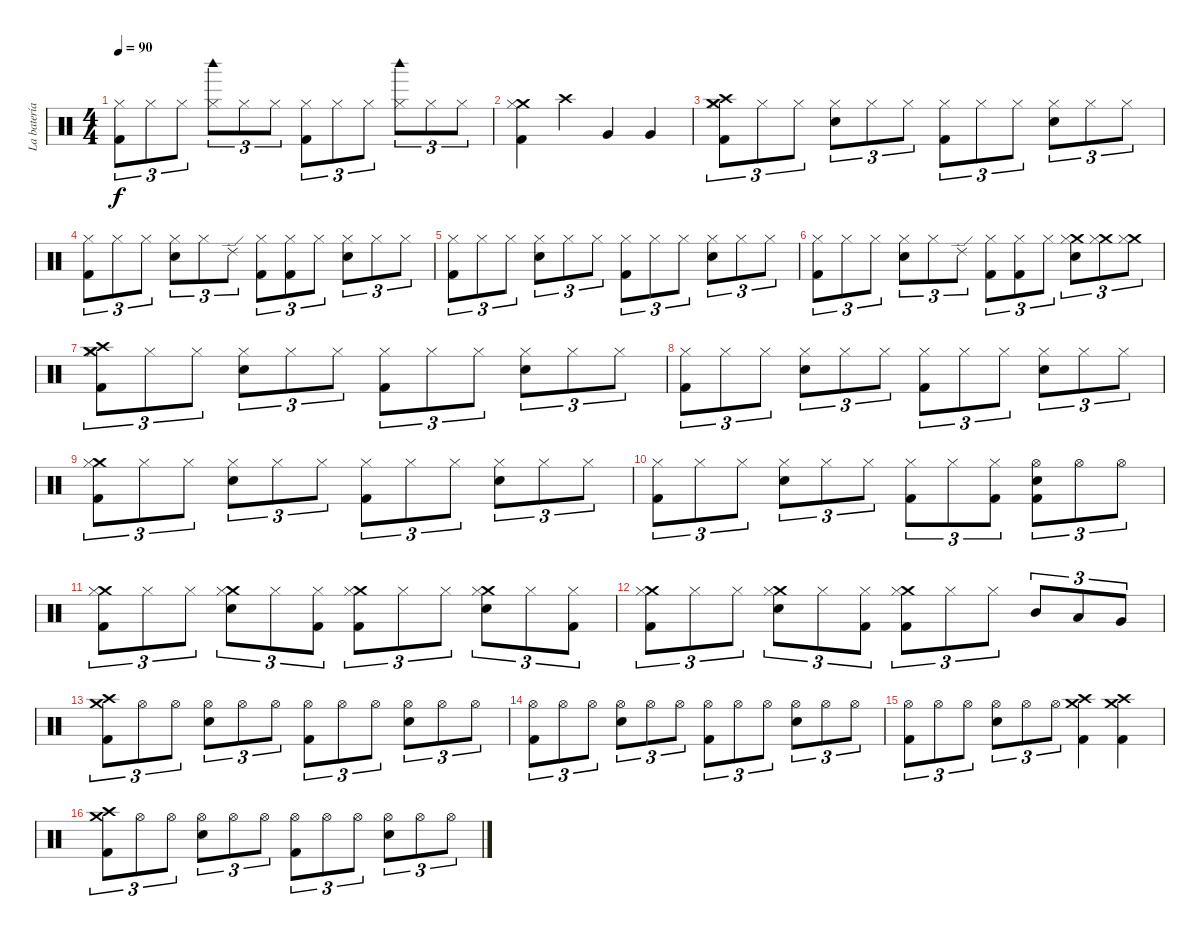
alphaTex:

\track ("La batería (con dos huevos xD)" "La batería") {instrument percussion}
\staff {score}
\articulation defaults
\ts (4 4)
\tempo 90
\clef neutral
\ks c
("Hi-Hat (closed)" "Kick (hit) 2").8{tu (3 2) dy f} "Hi-Hat (closed)".8{tu (3 2)} "Hi-Hat (closed)".8{tu (3 2)} ("Hi-Hat (closed)" "Woodblock high (hit)").8{tu (3 2)} "Hi-Hat (closed)".8{tu (3 2)} "Hi-Hat (closed)".8{tu (3 2)} ("Hi-Hat (closed)" "Kick (hit) 2").8{tu (3 2)} "Hi-Hat (closed)".8{tu (3 2)} "Hi-Hat (closed)".8{tu (3 2)} ("Hi-Hat (closed)" "Woodblock high (hit)").8{tu (3 2)} "Hi-Hat (closed)".8{tu (3 2)} "Hi-Hat (closed)".8{tu (3 2)} |
("Crash medium (hit)" "Hi-Hat (closed)" "Kick (hit) 2").4 "Crash high (hit)".4 "Very Low Tom (hit)".4 "Very Low Tom (hit)".4 |
("Crash high (hit)" "Hi-Hat (closed)" "Crash medium (hit)" "Kick (hit) 2").8{tu (3 2)} "Hi-Hat (closed)".8{tu (3 2)} "Hi-Hat (closed)".8{tu (3 2)} ("Hi-Hat (closed)" "Electric Snare (hit)").8{tu (3 2)} "Hi-Hat (closed)".8{tu (3 2)} "Hi-Hat (closed)".8{tu (3 2)} ("Hi-Hat (closed)" "Kick (hit) 2").8{tu (3 2)} "Hi-Hat (closed)".8{tu (3 2)} "Hi-Hat (closed)".8{tu (3 2)} ("Hi-Hat (closed)" "Electric Snare (hit)").8{tu (3 2)} "Hi-Hat (closed)".8{tu (3 2)} "Hi-Hat (closed)".8{tu (3 2)} |
("Hi-Hat (closed)" "Kick (hit) 2").8{tu (3 2)} "Hi-Hat (closed)".8{tu (3 2)} "Hi-Hat (closed)".8{tu (3 2)} ("Hi-Hat (closed)" "Electric Snare (hit)").8{tu (3 2)} "Hi-Hat (closed)".8{tu (3 2)} "Ride (edge) 2".8{tu (3 2)} ("Hi-Hat (closed)" "Kick (hit) 2").8{tu (3 2)} ("Hi-Hat (closed)" "Kick (hit) 2").8{tu (3 2)} "Hi-Hat (closed)".8{tu (3 2)} ("Hi-Hat (closed)" "Electric Snare (hit)").8{tu (3 2)} "Hi-Hat (closed)".8{tu (3 2)} "Hi-Hat (closed)".8{tu (3 2)} |
("Hi-Hat (closed)" "Kick (hit) 2").8{tu (3 2)} "Hi-Hat (closed)".8{tu (3 2)} "Hi-Hat (closed)".8{tu (3 2)} ("Hi-Hat (closed)" "Electric Snare (hit)").8{tu (3 2)} "Hi-Hat (closed)".8{tu (3 2)} "Hi-Hat (closed)".8{tu (3 2)} ("Hi-Hat (closed)" "Kick (hit) 2").8{tu (3 2)} "Hi-Hat (closed)".8{tu (3 2)} "Hi-Hat (closed)".8{tu (3 2)} ("Hi-Hat (closed)" "Electric Snare (hit)").8{tu (3 2)} "Hi-Hat (closed)".8{tu (3 2)} "Hi-Hat (closed)".8{tu (3 2)} |
("Hi-Hat (closed)" "Kick (hit) 2").8{tu (3 2)} "Hi-Hat (closed)".8{tu (3 2)} "Hi-Hat (closed)".8{tu (3 2)} ("Hi-Hat (closed)" "Electric Snare (hit)").8{tu (3 2)} "Hi-Hat (closed)".8{tu (3 2)} "Ride (edge) 2".8{tu (3 2)} ("Hi-Hat (closed)" "Kick (hit) 2").8{tu (3 2)} ("Hi-Hat (closed)" "Kick (hit) 2").8{tu (3 2)} "Hi-Hat (closed)".8{tu (3 2)} ("Crash medium (hit)" "Hi-Hat (closed)" "Electric Snare (hit)").8{tu (3 2)} ("Crash medium (hit)" "Hi-Hat (closed)").8{tu (3 2)} ("Crash medium (hit)" "Hi-Hat (closed)").8{tu (3 2)} |
("Crash high (hit)" "Hi-Hat (closed)" "Crash medium (hit)" "Kick (hit) 2").8{tu (3 2)} "Hi-Hat (closed)".8{tu (3 2)} "Hi-Hat (closed)".8{tu (3 2)} ("Hi-Hat (closed)" "Electric Snare (hit)").8{tu (3 2)} "Hi-Hat (closed)".8{tu (3 2)} "Hi-Hat (closed)".8{tu (3 2)} ("Hi-Hat (closed)" "Kick (hit) 2").8{tu (3 2)} "Hi-Hat (closed)".8{tu (3 2)} "Hi-Hat (closed)".8{tu (3 2)} ("Hi-Hat (closed)" "Electric Snare (hit)").8{tu (3 2)} "Hi-Hat (closed)".8{tu (3 2)} "Hi-Hat (closed)".8{tu (3 2)} |
("Hi-Hat (closed)" "Kick (hit) 2").8{tu (3 2)} "Hi-Hat (closed)".8{tu (3 2)} "Hi-Hat (closed)".8{tu (3 2)} ("Hi-Hat (closed)" "Electric Snare (hit)").8{tu (3 2)} "Hi-Hat (closed)".8{tu (3 2)} "Hi-Hat (closed)".8{tu (3 2)} ("Hi-Hat (closed)" "Kick (hit) 2").8{tu (3 2)} "Hi-Hat (closed)".8{tu (3 2)} "Hi-Hat (closed)".8{tu (3 2)} ("Hi-Hat (closed)" "Electric Snare (hit)").8{tu (3 2)} "Hi-Hat (closed)".8{tu (3 2)} "Hi-Hat (closed)".8{tu (3 2)} |
("Crash medium (hit)" "Hi-Hat (closed)" "Kick (hit) 2").8{tu (3 2)} "Hi-Hat (closed)".8{tu (3 2)} "Hi-Hat (closed)".8{tu (3 2)} ("Hi-Hat (closed)" "Electric Snare (hit)").8{tu (3 2)} "Hi-Hat (closed)".8{tu (3 2)} "Hi-Hat (closed)".8{tu (3 2)} ("Hi-Hat (closed)" "Kick (hit) 2").8{tu (3 2)} "Hi-Hat (closed)".8{tu (3 2)} "Hi-Hat (closed)".8{tu (3 2)} ("Hi-Hat (closed)" "Electric Snare (hit)").8{tu (3 2)} "Hi-Hat (closed)".8{tu (3 2)} "Hi-Hat (closed)".8{tu (3 2)} |
("Hi-Hat (closed)" "Kick (hit) 2").8{tu (3 2)} "Hi-Hat (closed)".8{tu (3 2)} "Hi-Hat (closed)".8{tu (3 2)} ("Hi-Hat (closed)" "Electric Snare (hit)").8{tu (3 2)} "Hi-Hat (closed)".8{tu (3 2)} "Hi-Hat (closed)".8{tu (3 2)} ("Hi-Hat (closed)" "Kick (hit) 2").8{tu (3 2)} "Hi-Hat (closed)".8{tu (3 2)} ("Hi-Hat (closed)" "Kick (hit) 2").8{tu (3 2)} ("Hi-Hat (open)" "Electric Snare (hit)" "Kick (hit) 2").8{tu (3 2)} "Hi-Hat (open)".8{tu (3 2)} "Hi-Hat (open)".8{tu (3 2)} |
("Crash medium (hit)" "Hi-Hat (closed)" "Kick (hit) 2").8{tu (3 2)} "Hi-Hat (closed)".8{tu (3 2)} "Hi-Hat (closed)".8{tu (3 2)} ("Crash medium (hit)" "Hi-Hat (closed)" "Electric Snare (hit)").8{tu (3 2)} "Hi-Hat (closed)".8{tu (3 2)} ("Hi-Hat (closed)" "Kick (hit) 2").8{tu (3 2)} ("Crash medium (hit)" "Hi-Hat (closed)" "Kick (hit) 2").8{tu (3 2)} "Hi-Hat (closed)".8{tu (3 2)} "Hi-Hat (closed)".8{tu (3 2)} ("Crash medium (hit)" "Hi-Hat (closed)" "Electric Snare (hit)").8{tu (3 2)} "Hi-Hat (closed)".8{tu (3 2)} ("Hi-Hat (closed)" "Kick (hit) 2").8{tu (3 2)} |
("Crash medium (hit)" "Hi-Hat (closed)" "Kick (hit) 2").8{tu (3 2)} "Hi-Hat (closed)".8{tu (3 2)} "Hi-Hat (closed)".8{tu (3 2)} ("Crash medium (hit)" "Hi-Hat (closed)" "Electric Snare (hit)").8{tu (3 2)} "Hi-Hat (closed)".8{tu (3 2)} ("Hi-Hat (closed)" "Kick (hit) 2").8{tu (3 2)} ("Crash medium (hit)" "Hi-Hat (closed)" "Kick (hit) 2").8{tu (3 2)} "Hi-Hat (closed)".8{tu (3 2)} "Hi-Hat (closed)".8{tu (3 2)} "Mid Tom (hit)".8{tu (3 2)} "Low Tom (hit)".8{tu (3 2)} "Very Low Tom (hit)".8{tu (3 2)} |
("Crash medium (hit)" "Crash high (hit)" "Kick (hit) 2").8{tu (3 2)} "Hi-Hat (open)".8{tu (3 2)} "Hi-Hat (open)".8{tu (3 2)} ("Hi-Hat (open)" "Electric Snare (hit)").8{tu (3 2)} "Hi-Hat (open)".8{tu (3 2)} "Hi-Hat (open)".8{tu (3 2)} ("Hi-Hat (open)" "Kick (hit) 2").8{tu (3 2)} "Hi-Hat (open)".8{tu (3 2)} "Hi-Hat (open)".8{tu (3 2)} ("Hi-Hat (open)" "Electric Snare (hit)").8{tu (3 2)} "Hi-Hat (open)".8{tu (3 2)} "Hi-Hat (open)".8{tu (3 2)} |
("Hi-Hat (open)" "Kick (hit) 2").8{tu (3 2)} "Hi-Hat (open)".8{tu (3 2)} "Hi-Hat (open)".8{tu (3 2)} ("Hi-Hat (open)" "Electric Snare (hit)").8{tu (3 2)} "Hi-Hat (open)".8{tu (3 2)} "Hi-Hat (open)".8{tu (3 2)} ("Hi-Hat (open)" "Kick (hit) 2").8{tu (3 2)} "Hi-Hat (open)".8{tu (3 2)} "Hi-Hat (open)".8{tu (3 2)} ("Hi-Hat (open)" "Electric Snare (hit)").8{tu (3 2)} "Hi-Hat (open)".8{tu (3 2)} "Hi-Hat (open)".8{tu (3 2)} |
("Hi-Hat (open)" "Kick (hit) 2").8{tu (3 2)} "Hi-Hat (open)".8{tu (3 2)} "Hi-Hat (open)".8{tu (3 2)} ("Hi-Hat (open)" "Electric Snare (hit)").8{tu (3 2)} "Hi-Hat (open)".8{tu (3 2)} "Hi-Hat (open)".8{tu (3 2)} ("Crash medium (hit)" "Crash high (hit)" "Kick (hit) 2").4 ("Crash medium (hit)" "Crash high (hit)" "Kick (hit) 2").4 |
("Crash medium (hit)" "Crash high (hit)" "Kick (hit) 2").8{tu (3 2)} "Hi-Hat (open)".8{tu (3 2)} "Hi-Hat (open)".8{tu (3 2)} ("Hi-Hat (open)" "Electric Snare (hit)").8{tu (3 2)} "Hi-Hat (open)".8{tu (3 2)} "Hi-Hat (open)".8{tu (3 2)} ("Hi-Hat (open)" "Kick (hit) 2").8{tu (3 2)} "Hi-Hat (open)".8{tu (3 2)} "Hi-Hat (open)".8{tu (3 2)} ("Hi-Hat (open)" "Electric Snare (hit)").8{tu (3 2)} "Hi-Hat (open)".8{tu (3 2)} "Hi-Hat (open)".8{tu (3 2)}
